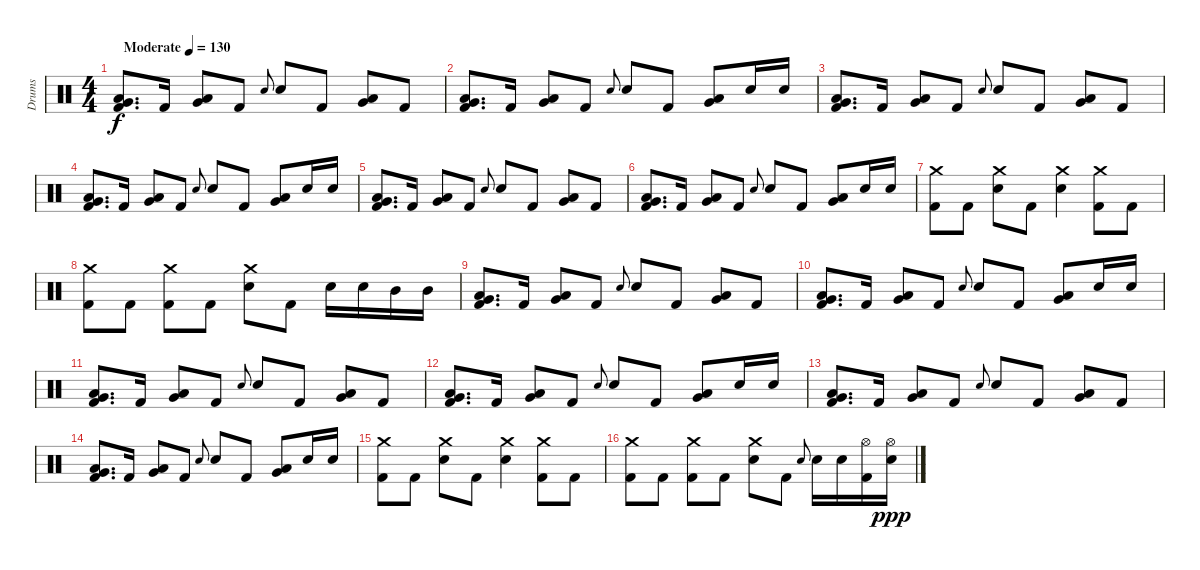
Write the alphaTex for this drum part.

\track ("Drums" "Drums") {instrument percussion}
\staff {score}
\articulation defaults
\ts (4 4)
\tempo (130 "Moderate")
\clef neutral
\ks c
("Very Low Tom (hit)" "Low Floor Tom (hit)" "Kick (hit) 2").8{d dy f} "Kick (hit) 2".16 ("Very Low Tom (hit)" "Low Floor Tom (hit)").8 "Kick (hit) 2".8 "Electric Snare (hit)".8{gr onbeat} "Electric Snare (hit)".8 "Kick (hit) 2".8 ("Very Low Tom (hit)" "Low Floor Tom (hit)").8 "Kick (hit) 2".8 |
("Very Low Tom (hit)" "Low Floor Tom (hit)" "Kick (hit) 2").8{d} "Kick (hit) 2".16 ("Very Low Tom (hit)" "Low Floor Tom (hit)").8 "Kick (hit) 2".8 "Electric Snare (hit)".8{gr onbeat} "Electric Snare (hit)".8 "Kick (hit) 2".8 ("Very Low Tom (hit)" "Low Floor Tom (hit)").8 "Electric Snare (hit)".16 "Electric Snare (hit)".16 |
("Very Low Tom (hit)" "Low Floor Tom (hit)" "Kick (hit) 2").8{d} "Kick (hit) 2".16 ("Very Low Tom (hit)" "Low Floor Tom (hit)").8 "Kick (hit) 2".8 "Electric Snare (hit)".8{gr onbeat} "Electric Snare (hit)".8 "Kick (hit) 2".8 ("Very Low Tom (hit)" "Low Floor Tom (hit)").8 "Kick (hit) 2".8 |
("Very Low Tom (hit)" "Low Floor Tom (hit)" "Kick (hit) 2").8{d} "Kick (hit) 2".16 ("Very Low Tom (hit)" "Low Floor Tom (hit)").8 "Kick (hit) 2".8 "Electric Snare (hit)".8{gr onbeat} "Electric Snare (hit)".8 "Kick (hit) 2".8 ("Very Low Tom (hit)" "Low Floor Tom (hit)").8 "Electric Snare (hit)".16 "Electric Snare (hit)".16 |
("Very Low Tom (hit)" "Low Floor Tom (hit)" "Kick (hit) 2").8{d} "Kick (hit) 2".16 ("Very Low Tom (hit)" "Low Floor Tom (hit)").8 "Kick (hit) 2".8 "Electric Snare (hit)".8{gr onbeat} "Electric Snare (hit)".8 "Kick (hit) 2".8 ("Very Low Tom (hit)" "Low Floor Tom (hit)").8 "Kick (hit) 2".8 |
("Very Low Tom (hit)" "Low Floor Tom (hit)" "Kick (hit) 2").8{d} "Kick (hit) 2".16 ("Very Low Tom (hit)" "Low Floor Tom (hit)").8 "Kick (hit) 2".8 "Electric Snare (hit)".8{gr onbeat} "Electric Snare (hit)".8 "Kick (hit) 2".8 ("Very Low Tom (hit)" "Low Floor Tom (hit)").8 "Electric Snare (hit)".16 "Electric Snare (hit)".16 |
("Crash medium (hit)" "Kick (hit) 2").8 "Kick (hit) 2".8 ("Crash medium (hit)" "Electric Snare (hit)").8 "Kick (hit) 2".8 ("Crash medium (hit)" "Electric Snare (hit)").4 ("Crash medium (hit)" "Kick (hit) 2").8 "Kick (hit) 2".8 |
("Crash medium (hit)" "Kick (hit) 2").8 "Kick (hit) 2".8 ("Crash medium (hit)" "Kick (hit) 2").8 "Kick (hit) 2".8 ("Crash medium (hit)" "Electric Snare (hit)").8 "Kick (hit) 2".8 "Electric Snare (hit)".16 "Electric Snare (hit)".16 "Mid Tom (hit)".16 "Mid Tom (hit)".16 |
("Very Low Tom (hit)" "Low Floor Tom (hit)" "Kick (hit) 2").8{d} "Kick (hit) 2".16 ("Very Low Tom (hit)" "Low Floor Tom (hit)").8 "Kick (hit) 2".8 "Electric Snare (hit)".8{gr onbeat} "Electric Snare (hit)".8 "Kick (hit) 2".8 ("Very Low Tom (hit)" "Low Floor Tom (hit)").8 "Kick (hit) 2".8 |
("Very Low Tom (hit)" "Low Floor Tom (hit)" "Kick (hit) 2").8{d} "Kick (hit) 2".16 ("Very Low Tom (hit)" "Low Floor Tom (hit)").8 "Kick (hit) 2".8 "Electric Snare (hit)".8{gr onbeat} "Electric Snare (hit)".8 "Kick (hit) 2".8 ("Very Low Tom (hit)" "Low Floor Tom (hit)").8 "Electric Snare (hit)".16 "Electric Snare (hit)".16 |
("Very Low Tom (hit)" "Low Floor Tom (hit)" "Kick (hit) 2").8{d} "Kick (hit) 2".16 ("Very Low Tom (hit)" "Low Floor Tom (hit)").8 "Kick (hit) 2".8 "Electric Snare (hit)".8{gr onbeat} "Electric Snare (hit)".8 "Kick (hit) 2".8 ("Very Low Tom (hit)" "Low Floor Tom (hit)").8 "Kick (hit) 2".8 |
("Very Low Tom (hit)" "Low Floor Tom (hit)" "Kick (hit) 2").8{d} "Kick (hit) 2".16 ("Very Low Tom (hit)" "Low Floor Tom (hit)").8 "Kick (hit) 2".8 "Electric Snare (hit)".8{gr onbeat} "Electric Snare (hit)".8 "Kick (hit) 2".8 ("Very Low Tom (hit)" "Low Floor Tom (hit)").8 "Electric Snare (hit)".16 "Electric Snare (hit)".16 |
("Very Low Tom (hit)" "Low Floor Tom (hit)" "Kick (hit) 2").8{d} "Kick (hit) 2".16 ("Very Low Tom (hit)" "Low Floor Tom (hit)").8 "Kick (hit) 2".8 "Electric Snare (hit)".8{gr onbeat} "Electric Snare (hit)".8 "Kick (hit) 2".8 ("Very Low Tom (hit)" "Low Floor Tom (hit)").8 "Kick (hit) 2".8 |
("Very Low Tom (hit)" "Low Floor Tom (hit)" "Kick (hit) 2").8{d} "Kick (hit) 2".16 ("Very Low Tom (hit)" "Low Floor Tom (hit)").8 "Kick (hit) 2".8 "Electric Snare (hit)".8{gr onbeat} "Electric Snare (hit)".8 "Kick (hit) 2".8 ("Very Low Tom (hit)" "Low Floor Tom (hit)").8 "Electric Snare (hit)".16 "Electric Snare (hit)".16 |
("Crash medium (hit)" "Kick (hit) 2").8 "Kick (hit) 2".8 ("Crash medium (hit)" "Electric Snare (hit)").8 "Kick (hit) 2".8 ("Crash medium (hit)" "Electric Snare (hit)").4 ("Crash medium (hit)" "Kick (hit) 2").8 "Kick (hit) 2".8 |
("Crash medium (hit)" "Kick (hit) 2").8 "Kick (hit) 2".8 ("Crash medium (hit)" "Kick (hit) 2").8 "Kick (hit) 2".8 ("Crash medium (hit)" "Electric Snare (hit)").8 "Kick (hit) 2".8 "Electric Snare (hit)".8{gr onbeat} "Electric Snare (hit)".16 "Electric Snare (hit)".16 ("Hi-Hat (open)" "Kick (hit) 2").16 ("Hi-Hat (open)" "Electric Snare (hit)").16{dy ppp}
